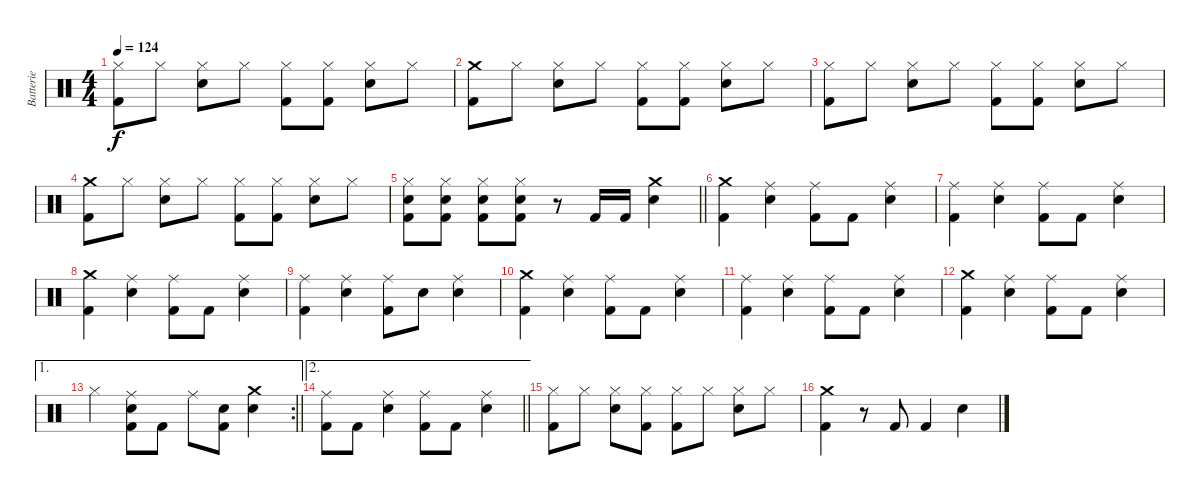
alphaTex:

\track ("Batterie" "Batterie") {instrument percussion}
\staff {score}
\articulation defaults
\ts (4 4)
\tempo 124
\clef neutral
\ks c
("Hi-Hat (closed)" "Kick (hit) 2").8{dy f} "Hi-Hat (closed)".8 ("Hi-Hat (closed)" "Snare (hit) 2").8 "Hi-Hat (closed)".8 ("Hi-Hat (closed)" "Kick (hit) 2").8 ("Hi-Hat (closed)" "Kick (hit) 2").8 ("Hi-Hat (closed)" "Snare (hit) 2").8 "Hi-Hat (closed)".8 |
("Crash medium (hit)" "Kick (hit) 2").8 "Hi-Hat (closed)".8 ("Hi-Hat (closed)" "Snare (hit) 2").8 "Hi-Hat (closed)".8 ("Hi-Hat (closed)" "Kick (hit) 2").8 ("Hi-Hat (closed)" "Kick (hit) 2").8 ("Hi-Hat (closed)" "Snare (hit) 2").8 "Hi-Hat (closed)".8 |
("Hi-Hat (closed)" "Kick (hit) 2").8 "Hi-Hat (closed)".8 ("Hi-Hat (closed)" "Snare (hit) 2").8 "Hi-Hat (closed)".8 ("Hi-Hat (closed)" "Kick (hit) 2").8 ("Hi-Hat (closed)" "Kick (hit) 2").8 ("Hi-Hat (closed)" "Snare (hit) 2").8 "Hi-Hat (closed)".8 |
("Crash medium (hit)" "Kick (hit) 2").8 "Hi-Hat (closed)".8 ("Hi-Hat (closed)" "Snare (hit) 2").8 "Hi-Hat (closed)".8 ("Hi-Hat (closed)" "Kick (hit) 2").8 ("Hi-Hat (closed)" "Kick (hit) 2").8 ("Hi-Hat (closed)" "Snare (hit) 2").8 "Hi-Hat (closed)".8 |
\barLineRight lightlight
("Hi-Hat (closed)" "Snare (hit) 2" "Kick (hit) 2").8 ("Hi-Hat (closed)" "Snare (hit) 2" "Kick (hit) 2").8 ("Hi-Hat (closed)" "Snare (hit) 2" "Kick (hit) 2").8 ("Hi-Hat (closed)" "Snare (hit) 2" "Kick (hit) 2").8 r.8 "Kick (hit) 2".16 "Kick (hit) 2".16 ("Crash medium (hit)" "Snare (hit) 2").4 |
("Crash medium (hit)" "Kick (hit) 2").4 ("Ride (middle)" "Snare (hit) 2").4 ("Ride (middle)" "Kick (hit) 2").8 "Kick (hit) 2".8 ("Ride (middle)" "Snare (hit) 2").4 |
("Ride (middle)" "Kick (hit) 2").4 ("Ride (middle)" "Snare (hit) 2").4 ("Ride (middle)" "Kick (hit) 2").8 "Kick (hit) 2".8 ("Ride (middle)" "Snare (hit) 2").4 |
("Crash medium (hit)" "Kick (hit) 2").4 ("Ride (middle)" "Snare (hit) 2").4 ("Ride (middle)" "Kick (hit) 2").8 "Kick (hit) 2".8 ("Ride (middle)" "Snare (hit) 2").4 |
("Ride (middle)" "Kick (hit) 2").4 ("Ride (middle)" "Snare (hit) 2").4 ("Ride (middle)" "Kick (hit) 2").8 "Snare (hit) 2".8 ("Ride (middle)" "Snare (hit) 2").4 |
("Crash medium (hit)" "Kick (hit) 2").4 ("Ride (middle)" "Snare (hit) 2").4 ("Ride (middle)" "Kick (hit) 2").8 "Kick (hit) 2".8 ("Ride (middle)" "Snare (hit) 2").4 |
("Ride (middle)" "Kick (hit) 2").4 ("Ride (middle)" "Snare (hit) 2").4 ("Ride (middle)" "Kick (hit) 2").8 "Kick (hit) 2".8 ("Ride (middle)" "Snare (hit) 2").4 |
("Crash medium (hit)" "Kick (hit) 2").4 ("Ride (middle)" "Snare (hit) 2").4 ("Ride (middle)" "Kick (hit) 2").8 "Kick (hit) 2".8 ("Ride (middle)" "Snare (hit) 2").4 |
\ae 1
\rc 2
\barLineRight lightlight "Hi-Hat (closed)".4
("Ride (middle)" "Snare (hit) 2" "Kick (hit) 2").8 "Kick (hit) 2".8 "Ride (middle)".8 ("Snare (hit) 2" "Kick (hit) 2").8 ("Crash medium (hit)" "Snare (hit) 2").4 |
\ae 2
\barLineRight lightlight
("Ride (middle)" "Kick (hit) 2").8 "Kick (hit) 2".8 ("Ride (middle)" "Snare (hit) 2").4 ("Ride (middle)" "Kick (hit) 2").8 "Kick (hit) 2".8 ("Ride (middle)" "Snare (hit) 2").4 |
("Hi-Hat (closed)" "Kick (hit) 2").8 "Hi-Hat (closed)".8 ("Hi-Hat (closed)" "Snare (hit) 2").8 ("Hi-Hat (closed)" "Kick (hit) 2").8 ("Hi-Hat (closed)" "Kick (hit) 2").8 "Hi-Hat (closed)".8 ("Hi-Hat (closed)" "Snare (hit) 2").8 "Hi-Hat (closed)".8 |
("Crash medium (hit)" "Kick (hit) 2").4 r.8 "Kick (hit) 2".8 "Kick (hit) 2".4 "Snare (hit) 2".4
